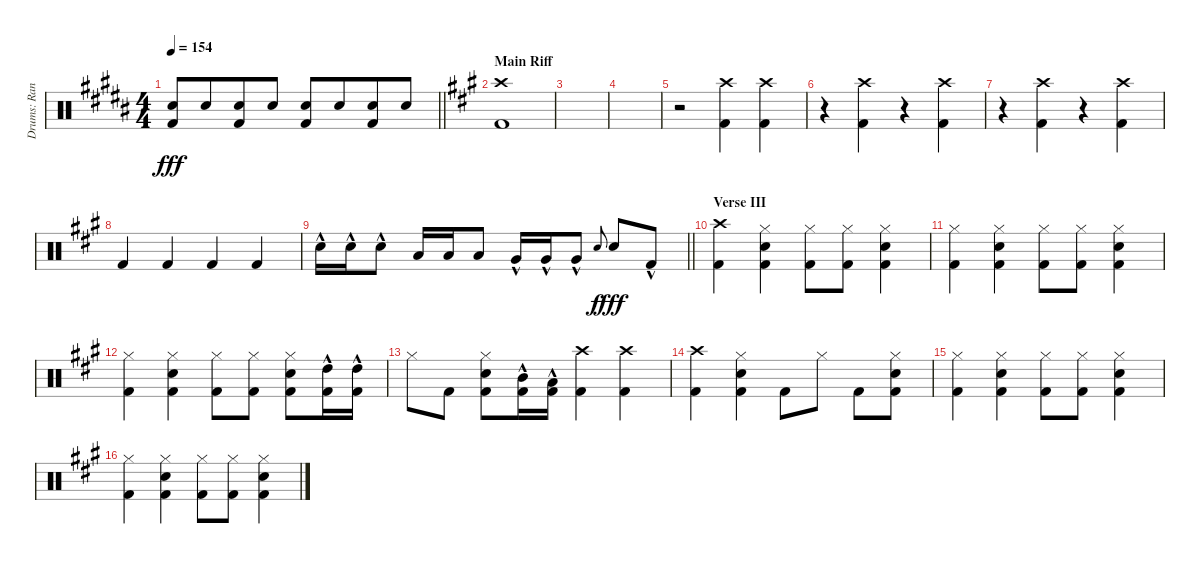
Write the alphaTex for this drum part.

\track ("Drums: Randy" "Drums: Ran") {instrument percussion}
\staff {score}
\articulation defaults
\ts (4 4)
\tempo 154
\clef neutral
\barLineRight lightlight
\ks b
("Snare (hit) 2" "Kick (hit) 2").8{dy fff} "Snare (hit) 2".8{beam merge} ("Snare (hit) 2" "Kick (hit) 2").8 "Snare (hit) 2".8 ("Snare (hit) 2" "Kick (hit) 2").8 "Snare (hit) 2".8{beam merge} ("Snare (hit) 2" "Kick (hit) 2").8 "Snare (hit) 2".8 |
\section ("" "Main Riff")
\ks a
("Crash high (hit)" "Kick (hit) 2").1 |
|
|
r.2 ("Crash high (hit)" "Kick (hit) 2").4 ("Crash high (hit)" "Kick (hit) 2").4 |
r.4 ("Crash high (hit)" "Kick (hit) 2").4 r.4 ("Crash high (hit)" "Kick (hit) 2").4 |
r.4 ("Crash high (hit)" "Kick (hit) 2").4 r.4 ("Crash high (hit)" "Kick (hit) 2").4 |
"Kick (hit) 2".4 "Kick (hit) 2".4 "Kick (hit) 2".4 "Kick (hit) 2".4 |
\barLineRight lightlight "Snare (hit) 2"{hac}.16 "Snare (hit) 2"{hac}.16 "Snare (hit) 2"{hac}.8 "Low Tom (hit)".16 "Low Tom (hit)".16 "Low Tom (hit)".8 "Very Low Tom (hit)"{hac}.16 "Very Low Tom (hit)"{hac}.16 "Very Low Tom (hit)"{hac}.8 "Electric Snare (hit)".8{gr onbeat dy f} "Snare (hit) 2".8{dy fff} "Kick (hit) 2"{hac}.8
|
\section ("" "Verse III")
("Crash high (hit)" "Kick (hit) 2").4 ("Hi-Hat (closed)" "Snare (hit) 2" "Kick (hit) 2").4 ("Hi-Hat (closed)" "Kick (hit) 2").8 ("Hi-Hat (closed)" "Kick (hit) 2").8 ("Hi-Hat (closed)" "Snare (hit) 2" "Kick (hit) 2").4 |
("Hi-Hat (closed)" "Kick (hit) 2").4 ("Hi-Hat (closed)" "Snare (hit) 2" "Kick (hit) 2").4 ("Hi-Hat (closed)" "Kick (hit) 2").8 ("Hi-Hat (closed)" "Kick (hit) 2").8 ("Hi-Hat (closed)" "Snare (hit) 2" "Kick (hit) 2").4 |
("Hi-Hat (closed)" "Kick (hit) 2").4 ("Hi-Hat (closed)" "Snare (hit) 2" "Kick (hit) 2").4 ("Hi-Hat (closed)" "Kick (hit) 2").8 ("Hi-Hat (closed)" "Kick (hit) 2").8 ("Hi-Hat (closed)" "Snare (hit) 2" "Kick (hit) 2").8 ("High Tom (hit)"{hac} "Kick (hit) 2"{hac}).16 ("High Tom (hit)"{hac} "Kick (hit) 2"{hac}).16 |
"Hi-Hat (closed)".8 "Kick (hit) 2".8 ("Hi-Hat (closed)" "Snare (hit) 2" "Kick (hit) 2").8 ("Mid Tom (hit)"{hac} "Kick (hit) 2"{hac}).16 ("Low Tom (hit)"{hac} "Kick (hit) 2"{hac}).16 ("Crash high (hit)" "Kick (hit) 2").4 ("Crash high (hit)" "Kick (hit) 2").4 |
("Crash high (hit)" "Kick (hit) 2").4 ("Hi-Hat (closed)" "Snare (hit) 2" "Kick (hit) 2").4 "Kick (hit) 2".8 "Hi-Hat (closed)".8 "Kick (hit) 2".8 ("Hi-Hat (closed)" "Snare (hit) 2" "Kick (hit) 2").8 |
("Hi-Hat (closed)" "Kick (hit) 2").4 ("Hi-Hat (closed)" "Snare (hit) 2" "Kick (hit) 2").4 ("Hi-Hat (closed)" "Kick (hit) 2").8 ("Hi-Hat (closed)" "Kick (hit) 2").8 ("Hi-Hat (closed)" "Snare (hit) 2" "Kick (hit) 2").4 |
("Hi-Hat (closed)" "Kick (hit) 2").4 ("Hi-Hat (closed)" "Snare (hit) 2" "Kick (hit) 2").4 ("Hi-Hat (closed)" "Kick (hit) 2").8 ("Hi-Hat (closed)" "Kick (hit) 2").8 ("Hi-Hat (closed)" "Snare (hit) 2" "Kick (hit) 2").4
